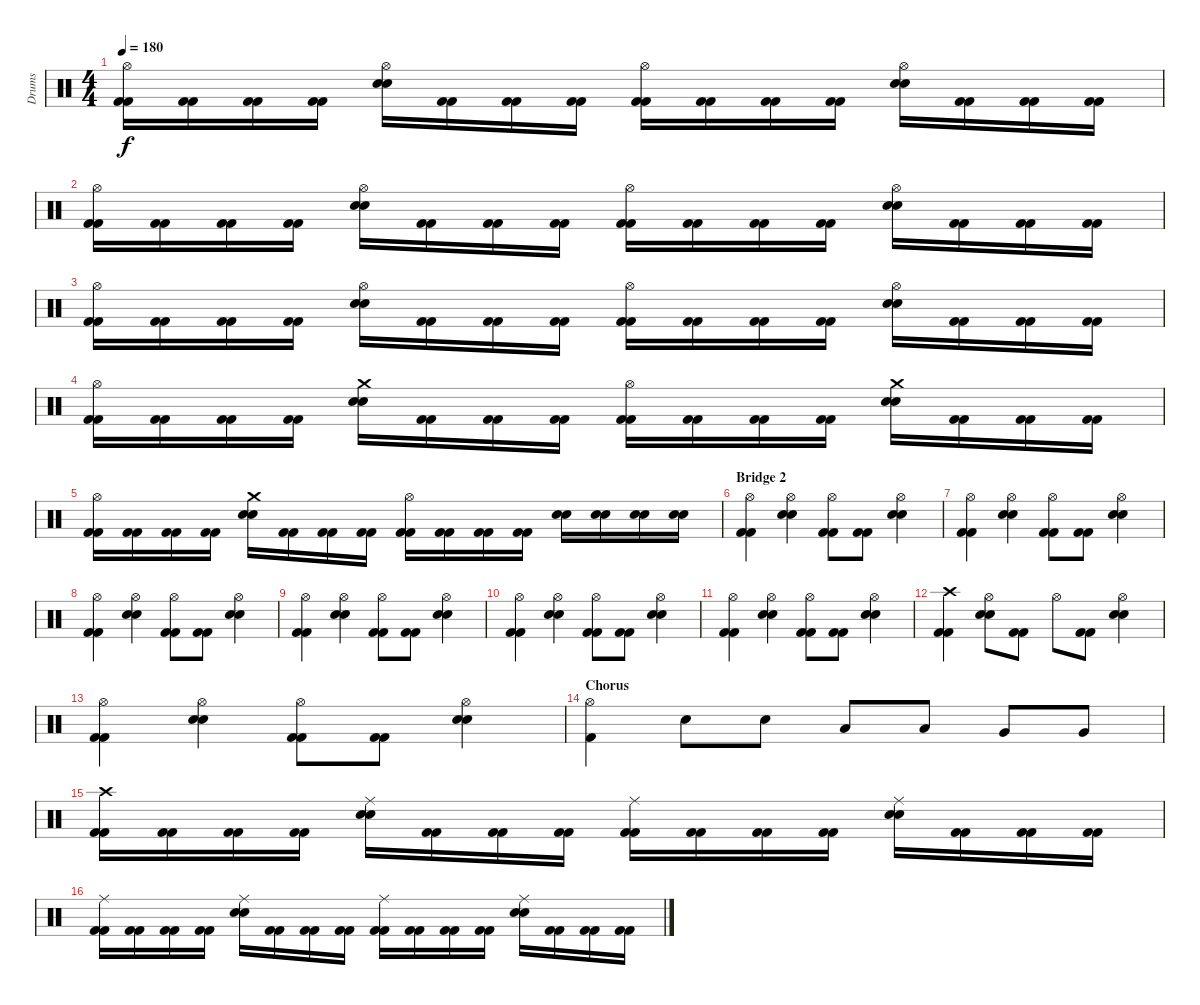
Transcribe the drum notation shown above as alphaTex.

\track ("Drums" "Drums") {instrument percussion}
\staff {score}
\articulation defaults
\ts (4 4)
\tempo 180
\clef neutral
\ks c
("Hi-Hat (open)" "Kick (hit) 2" "Kick (hit) 2").16{dy f} ("Kick (hit) 2" "Kick (hit) 2").16 ("Kick (hit) 2" "Kick (hit) 2").16 ("Kick (hit) 2" "Kick (hit) 2").16 ("Hi-Hat (open)" "Snare (hit) 2" "Snare (hit) 2").16 ("Kick (hit) 2" "Kick (hit) 2").16 ("Kick (hit) 2" "Kick (hit) 2").16 ("Kick (hit) 2" "Kick (hit) 2").16 ("Hi-Hat (open)" "Kick (hit) 2" "Kick (hit) 2").16 ("Kick (hit) 2" "Kick (hit) 2").16 ("Kick (hit) 2" "Kick (hit) 2").16 ("Kick (hit) 2" "Kick (hit) 2").16 ("Hi-Hat (open)" "Snare (hit) 2" "Snare (hit) 2").16 ("Kick (hit) 2" "Kick (hit) 2").16 ("Kick (hit) 2" "Kick (hit) 2").16 ("Kick (hit) 2" "Kick (hit) 2").16 |
("Hi-Hat (open)" "Kick (hit) 2" "Kick (hit) 2").16 ("Kick (hit) 2" "Kick (hit) 2").16 ("Kick (hit) 2" "Kick (hit) 2").16 ("Kick (hit) 2" "Kick (hit) 2").16 ("Hi-Hat (open)" "Snare (hit) 2" "Snare (hit) 2").16 ("Kick (hit) 2" "Kick (hit) 2").16 ("Kick (hit) 2" "Kick (hit) 2").16 ("Kick (hit) 2" "Kick (hit) 2").16 ("Hi-Hat (open)" "Kick (hit) 2" "Kick (hit) 2").16 ("Kick (hit) 2" "Kick (hit) 2").16 ("Kick (hit) 2" "Kick (hit) 2").16 ("Kick (hit) 2" "Kick (hit) 2").16 ("Hi-Hat (open)" "Snare (hit) 2" "Snare (hit) 2").16 ("Kick (hit) 2" "Kick (hit) 2").16 ("Kick (hit) 2" "Kick (hit) 2").16 ("Kick (hit) 2" "Kick (hit) 2").16 |
("Hi-Hat (open)" "Kick (hit) 2" "Kick (hit) 2").16 ("Kick (hit) 2" "Kick (hit) 2").16 ("Kick (hit) 2" "Kick (hit) 2").16 ("Kick (hit) 2" "Kick (hit) 2").16 ("Hi-Hat (open)" "Snare (hit) 2" "Snare (hit) 2").16 ("Kick (hit) 2" "Kick (hit) 2").16 ("Kick (hit) 2" "Kick (hit) 2").16 ("Kick (hit) 2" "Kick (hit) 2").16 ("Hi-Hat (open)" "Kick (hit) 2" "Kick (hit) 2").16 ("Kick (hit) 2" "Kick (hit) 2").16 ("Kick (hit) 2" "Kick (hit) 2").16 ("Kick (hit) 2" "Kick (hit) 2").16 ("Hi-Hat (open)" "Snare (hit) 2" "Snare (hit) 2").16 ("Kick (hit) 2" "Kick (hit) 2").16 ("Kick (hit) 2" "Kick (hit) 2").16 ("Kick (hit) 2" "Kick (hit) 2").16 |
("Hi-Hat (open)" "Kick (hit) 2" "Kick (hit) 2").16 ("Kick (hit) 2" "Kick (hit) 2").16 ("Kick (hit) 2" "Kick (hit) 2").16 ("Kick (hit) 2" "Kick (hit) 2").16 ("Crash medium (hit)" "Snare (hit) 2" "Snare (hit) 2").16 ("Kick (hit) 2" "Kick (hit) 2").16 ("Kick (hit) 2" "Kick (hit) 2").16 ("Kick (hit) 2" "Kick (hit) 2").16 ("Hi-Hat (open)" "Kick (hit) 2" "Kick (hit) 2").16 ("Kick (hit) 2" "Kick (hit) 2").16 ("Kick (hit) 2" "Kick (hit) 2").16 ("Kick (hit) 2" "Kick (hit) 2").16 ("Crash medium (hit)" "Snare (hit) 2" "Snare (hit) 2").16 ("Kick (hit) 2" "Kick (hit) 2").16 ("Kick (hit) 2" "Kick (hit) 2").16 ("Kick (hit) 2" "Kick (hit) 2").16 |
("Hi-Hat (open)" "Kick (hit) 2" "Kick (hit) 2").16 ("Kick (hit) 2" "Kick (hit) 2").16 ("Kick (hit) 2" "Kick (hit) 2").16 ("Kick (hit) 2" "Kick (hit) 2").16 ("Crash medium (hit)" "Snare (hit) 2" "Snare (hit) 2").16 ("Kick (hit) 2" "Kick (hit) 2").16 ("Kick (hit) 2" "Kick (hit) 2").16 ("Kick (hit) 2" "Kick (hit) 2").16 ("Hi-Hat (open)" "Kick (hit) 2" "Kick (hit) 2").16 ("Kick (hit) 2" "Kick (hit) 2").16 ("Kick (hit) 2" "Kick (hit) 2").16 ("Kick (hit) 2" "Kick (hit) 2").16 ("Snare (hit) 2" "Snare (hit) 2").16 ("Snare (hit) 2" "Snare (hit) 2").16 ("Snare (hit) 2" "Snare (hit) 2").16 ("Snare (hit) 2" "Snare (hit) 2").16 |
\section ("" "Bridge 2")
("Hi-Hat (open)" "Kick (hit) 2" "Kick (hit) 2").4 ("Hi-Hat (open)" "Snare (hit) 2" "Snare (hit) 2").4 ("Hi-Hat (open)" "Kick (hit) 2" "Kick (hit) 2").8 ("Kick (hit) 2" "Kick (hit) 2").8 ("Hi-Hat (open)" "Snare (hit) 2" "Snare (hit) 2").4 |
("Hi-Hat (open)" "Kick (hit) 2" "Kick (hit) 2").4 ("Hi-Hat (open)" "Snare (hit) 2" "Snare (hit) 2").4 ("Hi-Hat (open)" "Kick (hit) 2" "Kick (hit) 2").8 ("Kick (hit) 2" "Kick (hit) 2").8 ("Hi-Hat (open)" "Snare (hit) 2" "Snare (hit) 2").4 |
("Hi-Hat (open)" "Kick (hit) 2" "Kick (hit) 2").4 ("Hi-Hat (open)" "Snare (hit) 2" "Snare (hit) 2").4 ("Hi-Hat (open)" "Kick (hit) 2" "Kick (hit) 2").8 ("Kick (hit) 2" "Kick (hit) 2").8 ("Hi-Hat (open)" "Snare (hit) 2" "Snare (hit) 2").4 |
("Hi-Hat (open)" "Kick (hit) 2" "Kick (hit) 2").4 ("Hi-Hat (open)" "Snare (hit) 2" "Snare (hit) 2").4 ("Hi-Hat (open)" "Kick (hit) 2" "Kick (hit) 2").8 ("Kick (hit) 2" "Kick (hit) 2").8 ("Hi-Hat (open)" "Snare (hit) 2" "Snare (hit) 2").4 |
("Hi-Hat (open)" "Kick (hit) 2" "Kick (hit) 2").4 ("Hi-Hat (open)" "Snare (hit) 2" "Snare (hit) 2").4 ("Hi-Hat (open)" "Kick (hit) 2" "Kick (hit) 2").8 ("Kick (hit) 2" "Kick (hit) 2").8 ("Hi-Hat (open)" "Snare (hit) 2" "Snare (hit) 2").4 |
("Hi-Hat (open)" "Kick (hit) 2" "Kick (hit) 2").4 ("Hi-Hat (open)" "Snare (hit) 2" "Snare (hit) 2").4 ("Hi-Hat (open)" "Kick (hit) 2" "Kick (hit) 2").8 ("Kick (hit) 2" "Kick (hit) 2").8 ("Hi-Hat (open)" "Snare (hit) 2" "Snare (hit) 2").4 |
("Crash high (hit)" "Kick (hit) 2" "Kick (hit) 2").4 ("Hi-Hat (open)" "Snare (hit) 2" "Snare (hit) 2").8 ("Kick (hit) 2" "Kick (hit) 2").8 "Hi-Hat (open)".8 ("Kick (hit) 2" "Kick (hit) 2").8 ("Hi-Hat (open)" "Snare (hit) 2" "Snare (hit) 2").4 |
("Hi-Hat (open)" "Kick (hit) 2" "Kick (hit) 2").4 ("Hi-Hat (open)" "Snare (hit) 2" "Snare (hit) 2").4 ("Hi-Hat (open)" "Kick (hit) 2" "Kick (hit) 2").8 ("Kick (hit) 2" "Kick (hit) 2").8 ("Hi-Hat (open)" "Snare (hit) 2" "Snare (hit) 2").4 |
\section ("" "Chorus")
("Hi-Hat (open)" "Kick (hit) 2").4 "Snare (hit) 2".8 "Snare (hit) 2".8 "Low Tom (hit)".8 "Low Tom (hit)".8 "Very Low Tom (hit)".8 "Very Low Tom (hit)".8 |
("Crash high (hit)" "Kick (hit) 2" "Kick (hit) 2").16 ("Kick (hit) 2" "Kick (hit) 2").16 ("Kick (hit) 2" "Kick (hit) 2").16 ("Kick (hit) 2" "Kick (hit) 2").16 ("Ride (middle)" "Snare (hit) 2" "Snare (hit) 2").16 ("Kick (hit) 2" "Kick (hit) 2").16 ("Kick (hit) 2" "Kick (hit) 2").16 ("Kick (hit) 2" "Kick (hit) 2").16 ("Ride (middle)" "Kick (hit) 2" "Kick (hit) 2").16 ("Kick (hit) 2" "Kick (hit) 2").16 ("Kick (hit) 2" "Kick (hit) 2").16 ("Kick (hit) 2" "Kick (hit) 2").16 ("Ride (middle)" "Snare (hit) 2" "Snare (hit) 2").16 ("Kick (hit) 2" "Kick (hit) 2").16 ("Kick (hit) 2" "Kick (hit) 2").16 ("Kick (hit) 2" "Kick (hit) 2").16 |
("Ride (middle)" "Kick (hit) 2" "Kick (hit) 2").16 ("Kick (hit) 2" "Kick (hit) 2").16 ("Kick (hit) 2" "Kick (hit) 2").16 ("Kick (hit) 2" "Kick (hit) 2").16 ("Ride (middle)" "Snare (hit) 2" "Snare (hit) 2").16 ("Kick (hit) 2" "Kick (hit) 2").16 ("Kick (hit) 2" "Kick (hit) 2").16 ("Kick (hit) 2" "Kick (hit) 2").16 ("Ride (middle)" "Kick (hit) 2" "Kick (hit) 2").16 ("Kick (hit) 2" "Kick (hit) 2").16 ("Kick (hit) 2" "Kick (hit) 2").16 ("Kick (hit) 2" "Kick (hit) 2").16 ("Ride (middle)" "Snare (hit) 2" "Snare (hit) 2").16 ("Kick (hit) 2" "Kick (hit) 2").16 ("Kick (hit) 2" "Kick (hit) 2").16 ("Kick (hit) 2" "Kick (hit) 2").16
